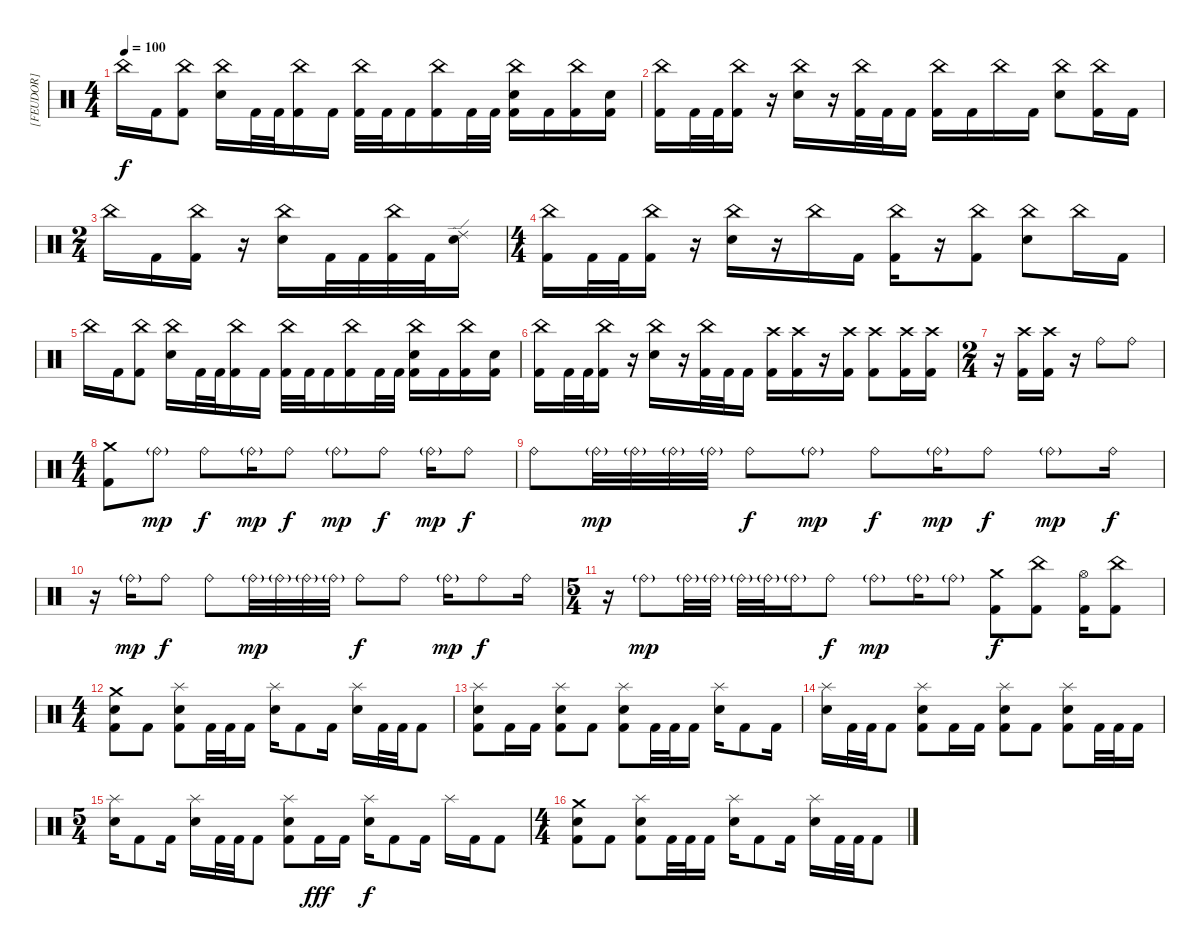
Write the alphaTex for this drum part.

\track ("[FEUDOR]" "[FEUDOR]") {instrument percussion}
\staff {score}
\articulation defaults
\ts (4 4)
\tempo 100
\clef neutral
\ks c "China (hit)".16{dy f} "Kick (hit) 2".16
("China (hit)" "Kick (hit) 2").8 ("China (hit)" "Electric Snare (hit)").16 "Kick (hit) 2".32 "Kick (hit) 2".32 ("China (hit)" "Kick (hit) 2").16 "Kick (hit) 2".16 ("China (hit)" "Kick (hit) 2").32 "Kick (hit) 2".32 "Kick (hit) 2".16 ("China (hit)" "Kick (hit) 2").16 "Kick (hit) 2".32 "Kick (hit) 2".32 ("China (hit)" "Electric Snare (hit)" "Kick (hit) 2").16 "Kick (hit) 2".16 ("China (hit)" "Kick (hit) 2").16 ("Electric Snare (hit)" "Kick (hit) 2").16 |
("China (hit)" "Kick (hit) 2").16 "Kick (hit) 2".32 "Kick (hit) 2".32 ("China (hit)" "Kick (hit) 2").16 r.16 ("China (hit)" "Electric Snare (hit)").16 r.16 ("China (hit)" "Kick (hit) 2").32 "Kick (hit) 2".32 "Kick (hit) 2".16 ("China (hit)" "Kick (hit) 2").16 "Kick (hit) 2".16 "China (hit)".16 "Kick (hit) 2".16 ("China (hit)" "Electric Snare (hit)").8 ("China (hit)" "Kick (hit) 2").16 "Kick (hit) 2".16 |
\ts (2 4)
"China (hit)".16 "Kick (hit) 2".16 ("China (hit)" "Kick (hit) 2").16 r.16 ("China (hit)" "Electric Snare (hit)").16 "Kick (hit) 2".32 "Kick (hit) 2".32 ("China (hit)" "Kick (hit) 2").32 "Kick (hit) 2".32 ("Ride (edge) 2" "Electric Snare (hit)").16 |
\ts (4 4)
("China (hit)" "Kick (hit) 2").16 "Kick (hit) 2".32 "Kick (hit) 2".32 ("China (hit)" "Kick (hit) 2").16 r.16 ("China (hit)" "Electric Snare (hit)").16 r.16 "China (hit)".16 "Kick (hit) 2".16 ("China (hit)" "Kick (hit) 2").16 r.16 ("China (hit)" "Kick (hit) 2").8 ("China (hit)" "Electric Snare (hit)").8 "China (hit)".16 "Kick (hit) 2".16 |
"China (hit)".16 "Kick (hit) 2".16 ("China (hit)" "Kick (hit) 2").8 ("China (hit)" "Electric Snare (hit)").16 "Kick (hit) 2".32 "Kick (hit) 2".32 ("China (hit)" "Kick (hit) 2").16 "Kick (hit) 2".16 ("China (hit)" "Kick (hit) 2").32 "Kick (hit) 2".32 "Kick (hit) 2".16 ("China (hit)" "Kick (hit) 2").16 "Kick (hit) 2".32 "Kick (hit) 2".32 ("China (hit)" "Electric Snare (hit)" "Kick (hit) 2").16 "Kick (hit) 2".16 ("China (hit)" "Kick (hit) 2").16 ("Electric Snare (hit)" "Kick (hit) 2").16 |
("China (hit)" "Kick (hit) 2").16 "Kick (hit) 2".32 "Kick (hit) 2".32 ("China (hit)" "Kick (hit) 2").16 r.16 ("China (hit)" "Electric Snare (hit)").16 r.16 ("China (hit)" "Kick (hit) 2").32 "Kick (hit) 2".32 "Kick (hit) 2".16 ("Crash high (hit)" "Kick (hit) 2").16 ("Crash high (hit)" "Kick (hit) 2").16 r.16 ("Crash high (hit)" "Kick (hit) 2").16 ("Crash high (hit)" "Kick (hit) 2").8 ("Crash high (hit)" "Kick (hit) 2").16 ("Crash high (hit)" "Kick (hit) 2").16 |
\ts (2 4)
r.16 ("Crash high (hit)" "Kick (hit) 2").16 ("Crash high (hit)" "Kick (hit) 2").16 r.16 "Ride (bell)".8 "Ride (bell)".8 |
\ts (4 4)
("Crash medium (hit)" "Kick (hit) 2").8 "Ride (bell)"{g}.8{dy mp} "Ride (bell)".8{dy f} "Ride (bell)"{g}.16{dy mp} "Ride (bell)".8{dy f} "Ride (bell)"{g}.8{dy mp} "Ride (bell)".8{dy f} "Ride (bell)"{g}.16{dy mp} "Ride (bell)".8{dy f} |
"Ride (bell)".8 "Ride (bell)"{g}.32{dy mp} "Ride (bell)"{g}.32 "Ride (bell)"{g}.32 "Ride (bell)"{g}.32 "Ride (bell)".8{dy f} "Ride (bell)"{g}.8{dy mp} "Ride (bell)".8{dy f} "Ride (bell)"{g}.16{dy mp} "Ride (bell)".8{dy f} "Ride (bell)"{g}.8{dy mp} "Ride (bell)".16{dy f} |
r.16 "Ride (bell)"{g}.16{dy mp} "Ride (bell)".8{dy f} "Ride (bell)".8 "Ride (bell)"{g}.32{dy mp} "Ride (bell)"{g}.32 "Ride (bell)"{g}.32 "Ride (bell)"{g}.32 "Ride (bell)".8{dy f} "Ride (bell)".8 "Ride (bell)"{g}.16{dy mp} "Ride (bell)".8{dy f} "Ride (bell)".16 |
\ts (5 4)
r.16 "Ride (bell)"{g}.8{dy mp} "Ride (bell)"{g}.32 "Ride (bell)"{g}.32 "Ride (bell)"{g}.32 "Ride (bell)"{g}.32 "Ride (bell)"{g}.16 "Ride (bell)".8{dy f} "Ride (bell)"{g}.8{dy mp} "Ride (bell)"{g}.16 "Ride (bell)"{g}.8 ("Crash medium (hit)" "Kick (hit) 2").8{dy f} ("China (hit)" "Kick (hit) 2").8 ("Hi-Hat (open)" "Kick (hit) 2").16 ("China (hit)" "Kick (hit) 2").8 |
\ts (4 4)
("Crash medium (hit)" "Electric Snare (hit)" "Kick (hit) 2").8 "Kick (hit) 2".8 ("Splash (hit)" "Electric Snare (hit)" "Kick (hit) 2").8 "Kick (hit) 2".32 "Kick (hit) 2".32 "Kick (hit) 2".16 ("Splash (hit)" "Electric Snare (hit)").16 "Kick (hit) 2".8 "Kick (hit) 2".16 ("Splash (hit)" "Electric Snare (hit)").16 "Kick (hit) 2".32 "Kick (hit) 2".32 "Kick (hit) 2".8 |
("Splash (hit)" "Electric Snare (hit)" "Kick (hit) 2").8 "Kick (hit) 2".16 "Kick (hit) 2".16 ("Splash (hit)" "Electric Snare (hit)" "Kick (hit) 2").8 "Kick (hit) 2".8 ("Splash (hit)" "Electric Snare (hit)" "Kick (hit) 2").8 "Kick (hit) 2".32 "Kick (hit) 2".32 "Kick (hit) 2".16 ("Splash (hit)" "Electric Snare (hit)").16 "Kick (hit) 2".8 "Kick (hit) 2".16 |
("Splash (hit)" "Electric Snare (hit)").16 "Kick (hit) 2".32 "Kick (hit) 2".32 "Kick (hit) 2".8 ("Splash (hit)" "Electric Snare (hit)" "Kick (hit) 2").8 "Kick (hit) 2".16 "Kick (hit) 2".16 ("Splash (hit)" "Electric Snare (hit)" "Kick (hit) 2").8 "Kick (hit) 2".8 ("Splash (hit)" "Electric Snare (hit)" "Kick (hit) 2").8 "Kick (hit) 2".32 "Kick (hit) 2".32 "Kick (hit) 2".16 |
\ts (5 4)
("Splash (hit)" "Electric Snare (hit)").16 "Kick (hit) 2".8 "Kick (hit) 2".16 ("Splash (hit)" "Electric Snare (hit)").16 "Kick (hit) 2".32 "Kick (hit) 2".32 "Kick (hit) 2".8 ("Splash (hit)" "Electric Snare (hit)" "Kick (hit) 2").8 "Kick (hit) 2".16{dy fff} "Kick (hit) 2".16 ("Splash (hit)" "Electric Snare (hit)").16{dy f} "Kick (hit) 2".8 "Kick (hit) 2".16 "Splash (hit)".16 "Kick (hit) 2".16 "Kick (hit) 2".8 |
\ts (4 4)
("Crash medium (hit)" "Electric Snare (hit)" "Kick (hit) 2").8 "Kick (hit) 2".8 ("Splash (hit)" "Electric Snare (hit)" "Kick (hit) 2").8 "Kick (hit) 2".32 "Kick (hit) 2".32 "Kick (hit) 2".16 ("Splash (hit)" "Electric Snare (hit)").16 "Kick (hit) 2".8 "Kick (hit) 2".16 ("Splash (hit)" "Electric Snare (hit)").16 "Kick (hit) 2".32 "Kick (hit) 2".32 "Kick (hit) 2".8
